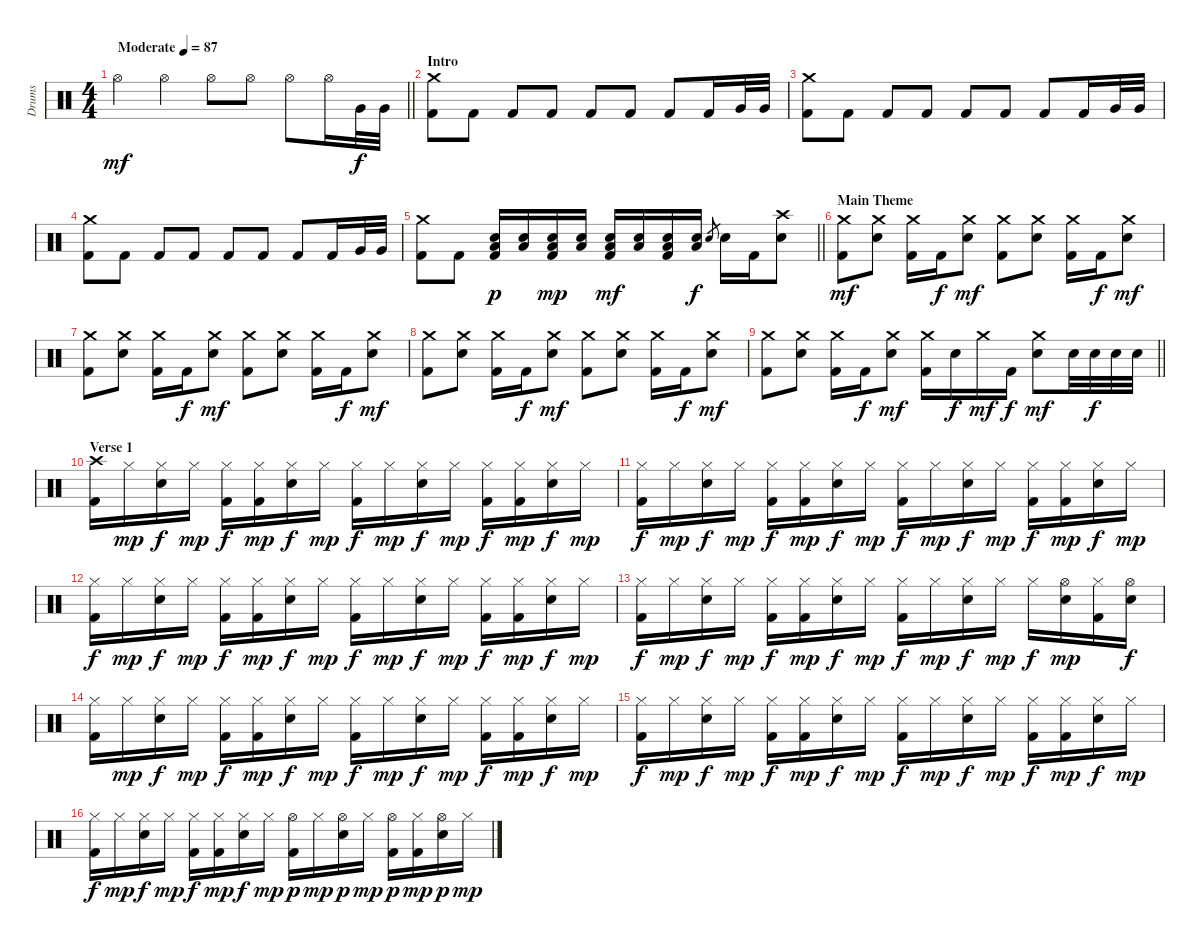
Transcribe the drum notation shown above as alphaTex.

\track ("Drums" "Drums") {instrument percussion}
\staff {score}
\articulation defaults
\ts (4 4)
\tempo (87 "Moderate")
\clef neutral
\barLineRight lightlight
\ks c "Hi-Hat (open)".4{dy mf} "Hi-Hat (open)".4 "Hi-Hat (open)".8 "Hi-Hat (open)".8 "Hi-Hat (open)".8 "Hi-Hat (open)".16 "Very Low Tom (hit)".32{dy f} "Very Low Tom (hit)".32
|
\section ("" "Intro")
("Crash medium (hit)" "Kick (hit) 2").8 "Kick (hit) 2".8 "Kick (hit) 2".8 "Kick (hit) 2".8 "Kick (hit) 2".8 "Kick (hit) 2".8 "Kick (hit) 2".8 "Kick (hit) 2".16 "Very Low Tom (hit)".32 "Very Low Tom (hit)".32 |
("Crash medium (hit)" "Kick (hit) 2").8 "Kick (hit) 2".8 "Kick (hit) 2".8 "Kick (hit) 2".8 "Kick (hit) 2".8 "Kick (hit) 2".8 "Kick (hit) 2".8 "Kick (hit) 2".16 "Very Low Tom (hit)".32 "Very Low Tom (hit)".32 |
("Crash medium (hit)" "Kick (hit) 2").8 "Kick (hit) 2".8 "Kick (hit) 2".8 "Kick (hit) 2".8 "Kick (hit) 2".8 "Kick (hit) 2".8 "Kick (hit) 2".8 "Kick (hit) 2".16 "Very Low Tom (hit)".32 "Very Low Tom (hit)".32 |
\barLineRight lightlight
("Crash medium (hit)" "Kick (hit) 2").8 "Kick (hit) 2".8 ("Low Floor Tom (hit)" "Electric Snare (hit)" "Kick (hit) 2").16{dy p} ("Low Floor Tom (hit)" "Electric Snare (hit)").16 ("Low Floor Tom (hit)" "Electric Snare (hit)" "Kick (hit) 2").16{dy mp} ("Low Floor Tom (hit)" "Electric Snare (hit)").16 ("Low Floor Tom (hit)" "Electric Snare (hit)" "Kick (hit) 2").16{dy mf} ("Low Floor Tom (hit)" "Electric Snare (hit)").16 ("Low Floor Tom (hit)" "Electric Snare (hit)" "Kick (hit) 2").16 ("Low Floor Tom (hit)" "Electric Snare (hit)").16{dy f} "Electric Snare (hit)".8{gr} "Electric Snare (hit)".16 "Kick (hit) 2".16 ("Crash high (hit)" "Electric Snare (hit)").8 |
\section ("" "Main Theme")
("Crash medium (hit)" "Kick (hit) 2").8{dy mf} ("Crash medium (hit)" "Electric Snare (hit)").8 ("Crash medium (hit)" "Kick (hit) 2").16 "Kick (hit) 2".16{dy f} ("Crash medium (hit)" "Electric Snare (hit)").8{dy mf} ("Crash medium (hit)" "Kick (hit) 2").8 ("Crash medium (hit)" "Electric Snare (hit)").8 ("Crash medium (hit)" "Kick (hit) 2").16 "Kick (hit) 2".16{dy f} ("Crash medium (hit)" "Electric Snare (hit)").8{dy mf} |
("Crash medium (hit)" "Kick (hit) 2").8 ("Crash medium (hit)" "Electric Snare (hit)").8 ("Crash medium (hit)" "Kick (hit) 2").16 "Kick (hit) 2".16{dy f} ("Crash medium (hit)" "Electric Snare (hit)").8{dy mf} ("Crash medium (hit)" "Kick (hit) 2").8 ("Crash medium (hit)" "Electric Snare (hit)").8 ("Crash medium (hit)" "Kick (hit) 2").16 "Kick (hit) 2".16{dy f} ("Crash medium (hit)" "Electric Snare (hit)").8{dy mf} |
("Crash medium (hit)" "Kick (hit) 2").8 ("Crash medium (hit)" "Electric Snare (hit)").8 ("Crash medium (hit)" "Kick (hit) 2").16 "Kick (hit) 2".16{dy f} ("Crash medium (hit)" "Electric Snare (hit)").8{dy mf} ("Crash medium (hit)" "Kick (hit) 2").8 ("Crash medium (hit)" "Electric Snare (hit)").8 ("Crash medium (hit)" "Kick (hit) 2").16 "Kick (hit) 2".16{dy f} ("Crash medium (hit)" "Electric Snare (hit)").8{dy mf} |
\barLineRight lightlight
("Crash medium (hit)" "Kick (hit) 2").8 ("Crash medium (hit)" "Electric Snare (hit)").8 ("Crash medium (hit)" "Kick (hit) 2").16 "Kick (hit) 2".16{dy f} ("Crash medium (hit)" "Electric Snare (hit)").8{dy mf} ("Crash medium (hit)" "Kick (hit) 2").16 "Electric Snare (hit)".16{dy f} "Crash medium (hit)".16{dy mf} "Kick (hit) 2".16{dy f} ("Crash medium (hit)" "Electric Snare (hit)").8{dy mf} "Electric Snare (hit)".32 "Electric Snare (hit)".32{dy f} "Electric Snare (hit)".32 "Electric Snare (hit)".32 |
\section ("" "Verse 1")
("Crash high (hit)" "Kick (hit) 2").16 "Hi-Hat (closed)".16{dy mp} ("Hi-Hat (closed)" "Electric Snare (hit)").16{dy f} "Hi-Hat (closed)".16{dy mp} ("Hi-Hat (closed)" "Kick (hit) 2").16{dy f} ("Hi-Hat (closed)" "Kick (hit) 2").16{dy mp} ("Hi-Hat (closed)" "Electric Snare (hit)").16{dy f} "Hi-Hat (closed)".16{dy mp} ("Hi-Hat (closed)" "Kick (hit) 2").16{dy f} "Hi-Hat (closed)".16{dy mp} ("Hi-Hat (closed)" "Electric Snare (hit)").16{dy f} "Hi-Hat (closed)".16{dy mp} ("Hi-Hat (closed)" "Kick (hit) 2").16{dy f} ("Hi-Hat (closed)" "Kick (hit) 2").16{dy mp} ("Hi-Hat (closed)" "Electric Snare (hit)").16{dy f} "Hi-Hat (closed)".16{dy mp} |
("Hi-Hat (closed)" "Kick (hit) 2").16{dy f} "Hi-Hat (closed)".16{dy mp} ("Hi-Hat (closed)" "Electric Snare (hit)").16{dy f} "Hi-Hat (closed)".16{dy mp} ("Hi-Hat (closed)" "Kick (hit) 2").16{dy f} ("Hi-Hat (closed)" "Kick (hit) 2").16{dy mp} ("Hi-Hat (closed)" "Electric Snare (hit)").16{dy f} "Hi-Hat (closed)".16{dy mp} ("Hi-Hat (closed)" "Kick (hit) 2").16{dy f} "Hi-Hat (closed)".16{dy mp} ("Hi-Hat (closed)" "Electric Snare (hit)").16{dy f} "Hi-Hat (closed)".16{dy mp} ("Hi-Hat (closed)" "Kick (hit) 2").16{dy f} ("Hi-Hat (closed)" "Kick (hit) 2").16{dy mp} ("Hi-Hat (closed)" "Electric Snare (hit)").16{dy f} "Hi-Hat (closed)".16{dy mp} |
("Hi-Hat (closed)" "Kick (hit) 2").16{dy f} "Hi-Hat (closed)".16{dy mp} ("Hi-Hat (closed)" "Electric Snare (hit)").16{dy f} "Hi-Hat (closed)".16{dy mp} ("Hi-Hat (closed)" "Kick (hit) 2").16{dy f} ("Hi-Hat (closed)" "Kick (hit) 2").16{dy mp} ("Hi-Hat (closed)" "Electric Snare (hit)").16{dy f} "Hi-Hat (closed)".16{dy mp} ("Hi-Hat (closed)" "Kick (hit) 2").16{dy f} "Hi-Hat (closed)".16{dy mp} ("Hi-Hat (closed)" "Electric Snare (hit)").16{dy f} "Hi-Hat (closed)".16{dy mp} ("Hi-Hat (closed)" "Kick (hit) 2").16{dy f} ("Hi-Hat (closed)" "Kick (hit) 2").16{dy mp} ("Hi-Hat (closed)" "Electric Snare (hit)").16{dy f} "Hi-Hat (closed)".16{dy mp} |
("Hi-Hat (closed)" "Kick (hit) 2").16{dy f} "Hi-Hat (closed)".16{dy mp} ("Hi-Hat (closed)" "Electric Snare (hit)").16{dy f} "Hi-Hat (closed)".16{dy mp} ("Hi-Hat (closed)" "Kick (hit) 2").16{dy f} ("Hi-Hat (closed)" "Kick (hit) 2").16{dy mp} ("Hi-Hat (closed)" "Electric Snare (hit)").16{dy f} "Hi-Hat (closed)".16{dy mp} ("Hi-Hat (closed)" "Kick (hit) 2").16{dy f} "Hi-Hat (closed)".16{dy mp} ("Hi-Hat (closed)" "Electric Snare (hit)").16{dy f} "Hi-Hat (closed)".16{dy mp} "Hi-Hat (closed)".16{dy f} ("Hi-Hat (open)" "Electric Snare (hit)").16{dy mp} ("Hi-Hat (closed)" "Kick (hit) 2").16 ("Hi-Hat (open)" "Electric Snare (hit)").16{dy f} |
("Hi-Hat (closed)" "Kick (hit) 2").16 "Hi-Hat (closed)".16{dy mp} ("Hi-Hat (closed)" "Electric Snare (hit)").16{dy f} "Hi-Hat (closed)".16{dy mp} ("Hi-Hat (closed)" "Kick (hit) 2").16{dy f} ("Hi-Hat (closed)" "Kick (hit) 2").16{dy mp} ("Hi-Hat (closed)" "Electric Snare (hit)").16{dy f} "Hi-Hat (closed)".16{dy mp} ("Hi-Hat (closed)" "Kick (hit) 2").16{dy f} "Hi-Hat (closed)".16{dy mp} ("Hi-Hat (closed)" "Electric Snare (hit)").16{dy f} "Hi-Hat (closed)".16{dy mp} ("Hi-Hat (closed)" "Kick (hit) 2").16{dy f} ("Hi-Hat (closed)" "Kick (hit) 2").16{dy mp} ("Hi-Hat (closed)" "Electric Snare (hit)").16{dy f} "Hi-Hat (closed)".16{dy mp} |
("Hi-Hat (closed)" "Kick (hit) 2").16{dy f} "Hi-Hat (closed)".16{dy mp} ("Hi-Hat (closed)" "Electric Snare (hit)").16{dy f} "Hi-Hat (closed)".16{dy mp} ("Hi-Hat (closed)" "Kick (hit) 2").16{dy f} ("Hi-Hat (closed)" "Kick (hit) 2").16{dy mp} ("Hi-Hat (closed)" "Electric Snare (hit)").16{dy f} "Hi-Hat (closed)".16{dy mp} ("Hi-Hat (closed)" "Kick (hit) 2").16{dy f} "Hi-Hat (closed)".16{dy mp} ("Hi-Hat (closed)" "Electric Snare (hit)").16{dy f} "Hi-Hat (closed)".16{dy mp} ("Hi-Hat (closed)" "Kick (hit) 2").16{dy f} ("Hi-Hat (closed)" "Kick (hit) 2").16{dy mp} ("Hi-Hat (closed)" "Electric Snare (hit)").16{dy f} "Hi-Hat (closed)".16{dy mp} |
("Hi-Hat (closed)" "Kick (hit) 2").16{dy f} "Hi-Hat (closed)".16{dy mp} ("Hi-Hat (closed)" "Electric Snare (hit)").16{dy f} "Hi-Hat (closed)".16{dy mp} ("Hi-Hat (closed)" "Kick (hit) 2").16{dy f} ("Hi-Hat (closed)" "Kick (hit) 2").16{dy mp} ("Hi-Hat (closed)" "Electric Snare (hit)").16{dy f} "Hi-Hat (closed)".16{dy mp} ("Hi-Hat (open)" "Kick (hit) 2").16{dy p} "Hi-Hat (closed)".16{dy mp} ("Hi-Hat (open)" "Electric Snare (hit)").16{dy p} "Hi-Hat (closed)".16{dy mp} ("Hi-Hat (open)" "Kick (hit) 2").16{dy p} ("Hi-Hat (closed)" "Kick (hit) 2").16{dy mp} ("Hi-Hat (open)" "Electric Snare (hit)").16{dy p} "Hi-Hat (closed)".16{dy mp}
